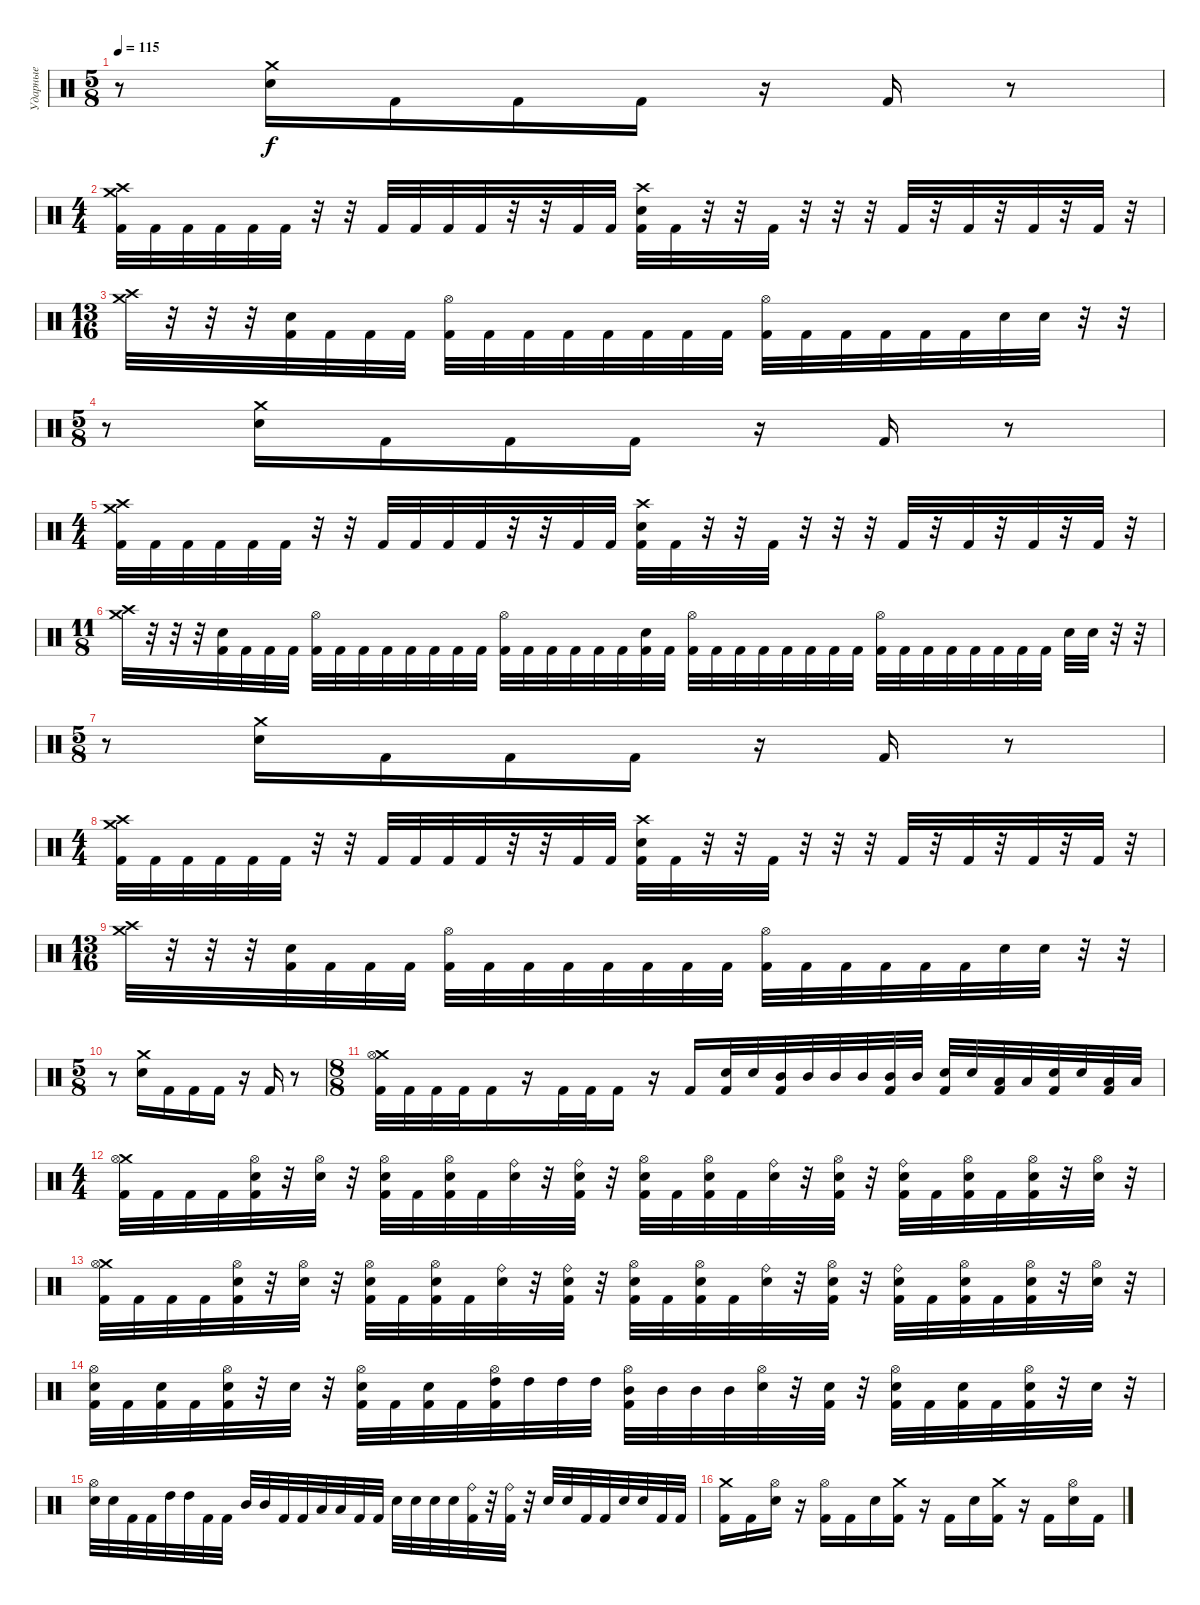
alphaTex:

\track ("Ударные" "Ударные") {instrument percussion}
\staff {score}
\articulation defaults
\ts (5 8)
\tempo 115
\clef neutral
\ks c
r.8{dy f} ("Crash medium (hit)" "Electric Snare (hit)").16 "Kick (hit) 2".16 "Kick (hit) 2".16 "Kick (hit) 2".16 r.16 "Kick (hit) 2".16 r.8 |
\ts (4 4)
("Crash high (hit)" "Crash medium (hit)" "Kick (hit) 2").32 "Kick (hit) 2".32 "Kick (hit) 2".32 "Kick (hit) 2".32 "Kick (hit) 2".32 "Kick (hit) 2".32 r.32 r.32 "Kick (hit) 2".32 "Kick (hit) 2".32 "Kick (hit) 2".32 "Kick (hit) 2".32 r.32 r.32 "Kick (hit) 2".32 "Kick (hit) 2".32 ("Crash high (hit)" "Electric Snare (hit)" "Kick (hit) 2").32 "Kick (hit) 2".32 r.32 r.32 "Kick (hit) 2".32 r.32 r.32 r.32 "Kick (hit) 2".32 r.32 "Kick (hit) 2".32 r.32 "Kick (hit) 2".32 r.32 "Kick (hit) 2".32 r.32 |
\ts (13 16)
("Crash medium (hit)" "Crash high (hit)").32 r.32 r.32 r.32 ("Electric Snare (hit)" "Kick (hit) 2").32 "Kick (hit) 2".32 "Kick (hit) 2".32 "Kick (hit) 2".32 ("Hi-Hat (open)" "Kick (hit) 2").32 "Kick (hit) 2".32 "Kick (hit) 2".32 "Kick (hit) 2".32 "Kick (hit) 2".32 "Kick (hit) 2".32 "Kick (hit) 2".32 "Kick (hit) 2".32 ("Hi-Hat (open)" "Kick (hit) 2").32 "Kick (hit) 2".32 "Kick (hit) 2".32 "Kick (hit) 2".32 "Kick (hit) 2".32 "Kick (hit) 2".32 "Electric Snare (hit)".32 "Electric Snare (hit)".32 r.32 r.32 |
\ts (5 8)
r.8 ("Crash medium (hit)" "Electric Snare (hit)").16 "Kick (hit) 2".16 "Kick (hit) 2".16 "Kick (hit) 2".16 r.16 "Kick (hit) 2".16 r.8 |
\ts (4 4)
("Crash high (hit)" "Crash medium (hit)" "Kick (hit) 2").32 "Kick (hit) 2".32 "Kick (hit) 2".32 "Kick (hit) 2".32 "Kick (hit) 2".32 "Kick (hit) 2".32 r.32 r.32 "Kick (hit) 2".32 "Kick (hit) 2".32 "Kick (hit) 2".32 "Kick (hit) 2".32 r.32 r.32 "Kick (hit) 2".32 "Kick (hit) 2".32 ("Crash high (hit)" "Electric Snare (hit)" "Kick (hit) 2").32 "Kick (hit) 2".32 r.32 r.32 "Kick (hit) 2".32 r.32 r.32 r.32 "Kick (hit) 2".32 r.32 "Kick (hit) 2".32 r.32 "Kick (hit) 2".32 r.32 "Kick (hit) 2".32 r.32 |
\ts (11 8)
("Crash medium (hit)" "Crash high (hit)").32 r.32 r.32 r.32 ("Electric Snare (hit)" "Kick (hit) 2").32 "Kick (hit) 2".32 "Kick (hit) 2".32 "Kick (hit) 2".32 ("Hi-Hat (open)" "Kick (hit) 2").32 "Kick (hit) 2".32 "Kick (hit) 2".32 "Kick (hit) 2".32 "Kick (hit) 2".32 "Kick (hit) 2".32 "Kick (hit) 2".32 "Kick (hit) 2".32 ("Hi-Hat (open)" "Kick (hit) 2").32 "Kick (hit) 2".32 "Kick (hit) 2".32 "Kick (hit) 2".32 "Kick (hit) 2".32 "Kick (hit) 2".32 ("Electric Snare (hit)" "Kick (hit) 2").32 "Kick (hit) 2".32 ("Hi-Hat (open)" "Kick (hit) 2").32 "Kick (hit) 2".32 "Kick (hit) 2".32 "Kick (hit) 2".32 "Kick (hit) 2".32 "Kick (hit) 2".32 "Kick (hit) 2".32 "Kick (hit) 2".32 ("Hi-Hat (open)" "Kick (hit) 2").32 "Kick (hit) 2".32 "Kick (hit) 2".32 "Kick (hit) 2".32 "Kick (hit) 2".32 "Kick (hit) 2".32 "Kick (hit) 2".32 "Kick (hit) 2".32 "Electric Snare (hit)".32 "Electric Snare (hit)".32 r.32 r.32 |
\ts (5 8)
r.8 ("Crash medium (hit)" "Electric Snare (hit)").16 "Kick (hit) 2".16 "Kick (hit) 2".16 "Kick (hit) 2".16 r.16 "Kick (hit) 2".16 r.8 |
\ts (4 4)
("Crash high (hit)" "Crash medium (hit)" "Kick (hit) 2").32 "Kick (hit) 2".32 "Kick (hit) 2".32 "Kick (hit) 2".32 "Kick (hit) 2".32 "Kick (hit) 2".32 r.32 r.32 "Kick (hit) 2".32 "Kick (hit) 2".32 "Kick (hit) 2".32 "Kick (hit) 2".32 r.32 r.32 "Kick (hit) 2".32 "Kick (hit) 2".32 ("Crash high (hit)" "Electric Snare (hit)" "Kick (hit) 2").32 "Kick (hit) 2".32 r.32 r.32 "Kick (hit) 2".32 r.32 r.32 r.32 "Kick (hit) 2".32 r.32 "Kick (hit) 2".32 r.32 "Kick (hit) 2".32 r.32 "Kick (hit) 2".32 r.32 |
\ts (13 16)
("Crash medium (hit)" "Crash high (hit)").32 r.32 r.32 r.32 ("Electric Snare (hit)" "Kick (hit) 2").32 "Kick (hit) 2".32 "Kick (hit) 2".32 "Kick (hit) 2".32 ("Hi-Hat (open)" "Kick (hit) 2").32 "Kick (hit) 2".32 "Kick (hit) 2".32 "Kick (hit) 2".32 "Kick (hit) 2".32 "Kick (hit) 2".32 "Kick (hit) 2".32 "Kick (hit) 2".32 ("Hi-Hat (open)" "Kick (hit) 2").32 "Kick (hit) 2".32 "Kick (hit) 2".32 "Kick (hit) 2".32 "Kick (hit) 2".32 "Kick (hit) 2".32 "Electric Snare (hit)".32 "Electric Snare (hit)".32 r.32 r.32 |
\ts (5 8)
r.8 ("Crash medium (hit)" "Electric Snare (hit)").16 "Kick (hit) 2".16 "Kick (hit) 2".16 "Kick (hit) 2".16 r.16 "Kick (hit) 2".16 r.8 |
\ts (8 8)
("Crash medium (hit)" "Hi-Hat (open)" "Kick (hit) 2").32 "Kick (hit) 2".32 "Kick (hit) 2".32 "Kick (hit) 2".32 "Kick (hit) 2".16 r.16 "Kick (hit) 2".32 "Kick (hit) 2".32 "Kick (hit) 2".16 r.16 "Kick (hit) 2".16 ("Electric Snare (hit)" "Kick (hit) 2").32 "Electric Snare (hit)".32 ("Mid Tom (hit)" "Kick (hit) 2").32 "Mid Tom (hit)".32 "Mid Tom (hit)".32 "Mid Tom (hit)".32 ("Mid Tom (hit)" "Kick (hit) 2").32 "Mid Tom (hit)".32 ("Electric Snare (hit)" "Kick (hit) 2").32 "Electric Snare (hit)".32 ("Low Tom (hit)" "Kick (hit) 2").32 "Low Tom (hit)".32 ("Electric Snare (hit)" "Kick (hit) 2").32 "Electric Snare (hit)".32 ("Low Tom (hit)" "Kick (hit) 2").32 "Low Tom (hit)".32 |
\ts (4 4)
("Crash medium (hit)" "Hi-Hat (open)" "Kick (hit) 2").32 "Kick (hit) 2".32 "Kick (hit) 2".32 "Kick (hit) 2".32 ("Electric Snare (hit)" "Hi-Hat (open)" "Kick (hit) 2").32 r.32 ("Electric Snare (hit)" "Hi-Hat (open)").32 r.32 ("Electric Snare (hit)" "Hi-Hat (open)" "Kick (hit) 2").32 "Kick (hit) 2".32 ("Electric Snare (hit)" "Hi-Hat (open)" "Kick (hit) 2").32 "Kick (hit) 2".32 ("Electric Snare (hit)" "Ride (bell)").32 r.32 ("Electric Snare (hit)" "Ride (bell)" "Kick (hit) 2").32 r.32 ("Electric Snare (hit)" "Hi-Hat (open)" "Kick (hit) 2").32 "Kick (hit) 2".32 ("Electric Snare (hit)" "Hi-Hat (open)" "Kick (hit) 2").32 "Kick (hit) 2".32 ("Electric Snare (hit)" "Ride (bell)").32 r.32 ("Electric Snare (hit)" "Hi-Hat (open)" "Kick (hit) 2").32 r.32 ("Electric Snare (hit)" "Ride (bell)" "Kick (hit) 2").32 "Kick (hit) 2".32 ("Electric Snare (hit)" "Hi-Hat (open)" "Kick (hit) 2").32 "Kick (hit) 2".32 ("Electric Snare (hit)" "Hi-Hat (open)" "Kick (hit) 2").32 r.32 ("Electric Snare (hit)" "Hi-Hat (open)").32 r.32 |
("Crash medium (hit)" "Hi-Hat (open)" "Kick (hit) 2").32 "Kick (hit) 2".32 "Kick (hit) 2".32 "Kick (hit) 2".32 ("Electric Snare (hit)" "Hi-Hat (open)" "Kick (hit) 2").32 r.32 ("Electric Snare (hit)" "Hi-Hat (open)").32 r.32 ("Electric Snare (hit)" "Hi-Hat (open)" "Kick (hit) 2").32 "Kick (hit) 2".32 ("Electric Snare (hit)" "Hi-Hat (open)" "Kick (hit) 2").32 "Kick (hit) 2".32 ("Electric Snare (hit)" "Ride (bell)").32 r.32 ("Electric Snare (hit)" "Ride (bell)" "Kick (hit) 2").32 r.32 ("Electric Snare (hit)" "Hi-Hat (open)" "Kick (hit) 2").32 "Kick (hit) 2".32 ("Electric Snare (hit)" "Hi-Hat (open)" "Kick (hit) 2").32 "Kick (hit) 2".32 ("Electric Snare (hit)" "Ride (bell)").32 r.32 ("Electric Snare (hit)" "Hi-Hat (open)" "Kick (hit) 2").32 r.32 ("Electric Snare (hit)" "Ride (bell)" "Kick (hit) 2").32 "Kick (hit) 2".32 ("Electric Snare (hit)" "Hi-Hat (open)" "Kick (hit) 2").32 "Kick (hit) 2".32 ("Electric Snare (hit)" "Hi-Hat (open)" "Kick (hit) 2").32 r.32 ("Electric Snare (hit)" "Hi-Hat (open)").32 r.32 |
("Electric Snare (hit)" "Hi-Hat (open)" "Kick (hit) 2").32 "Kick (hit) 2".32 ("Electric Snare (hit)" "Kick (hit) 2").32 "Kick (hit) 2".32 ("Electric Snare (hit)" "Hi-Hat (open)" "Kick (hit) 2").32 r.32 "Electric Snare (hit)".32 r.32 ("Electric Snare (hit)" "Hi-Hat (open)" "Kick (hit) 2").32 "Kick (hit) 2".32 ("Electric Snare (hit)" "Kick (hit) 2").32 "Kick (hit) 2".32 ("High Tom (hit)" "Hi-Hat (open)" "Kick (hit) 2").32 "High Tom (hit)".32 "High Tom (hit)".32 "High Tom (hit)".32 ("Mid Tom (hit)" "Hi-Hat (open)" "Kick (hit) 2").32 "Mid Tom (hit)".32 "Mid Tom (hit)".32 "Mid Tom (hit)".32 ("Electric Snare (hit)" "Hi-Hat (open)").32 r.32 ("Electric Snare (hit)" "Kick (hit) 2").32 r.32 ("Electric Snare (hit)" "Hi-Hat (open)" "Kick (hit) 2").32 "Kick (hit) 2".32 ("Electric Snare (hit)" "Kick (hit) 2").32 "Kick (hit) 2".32 ("Electric Snare (hit)" "Hi-Hat (open)" "Kick (hit) 2").32 r.32 "Electric Snare (hit)".32 r.32 |
("Hi-Hat (open)" "Electric Snare (hit)").32 "Electric Snare (hit)".32 "Kick (hit) 2".32 "Kick (hit) 2".32 "High Tom (hit)".32 "High Tom (hit)".32 "Kick (hit) 2".32 "Kick (hit) 2".32 "Mid Tom (hit)".32 "Mid Tom (hit)".32 "Kick (hit) 2".32 "Kick (hit) 2".32 "Low Tom (hit)".32 "Low Tom (hit)".32 "Kick (hit) 2".32 "Kick (hit) 2".32 "Electric Snare (hit)".32 "Electric Snare (hit)".32 "Electric Snare (hit)".32 "Electric Snare (hit)".32 ("Ride (bell)" "Kick (hit) 2").32 r.32 ("Ride (bell)" "Kick (hit) 2").32 r.32 "Electric Snare (hit)".32 "Electric Snare (hit)".32 "Kick (hit) 2".32 "Kick (hit) 2".32 "Electric Snare (hit)".32 "Electric Snare (hit)".32 "Kick (hit) 2".32 "Kick (hit) 2".32 |
("Crash medium (hit)" "Kick (hit) 2").16 "Kick (hit) 2".16 ("Hi-Hat (open)" "Electric Snare (hit)").16 r.16 ("Hi-Hat (open)" "Kick (hit) 2").16 "Kick (hit) 2".16 "Electric Snare (hit)".16 ("Crash medium (hit)" "Kick (hit) 2").16 r.16 "Kick (hit) 2".16 "Electric Snare (hit)".16 ("Crash medium (hit)" "Kick (hit) 2").16 r.16 "Kick (hit) 2".16 ("Hi-Hat (open)" "Electric Snare (hit)").16 "Kick (hit) 2".16
